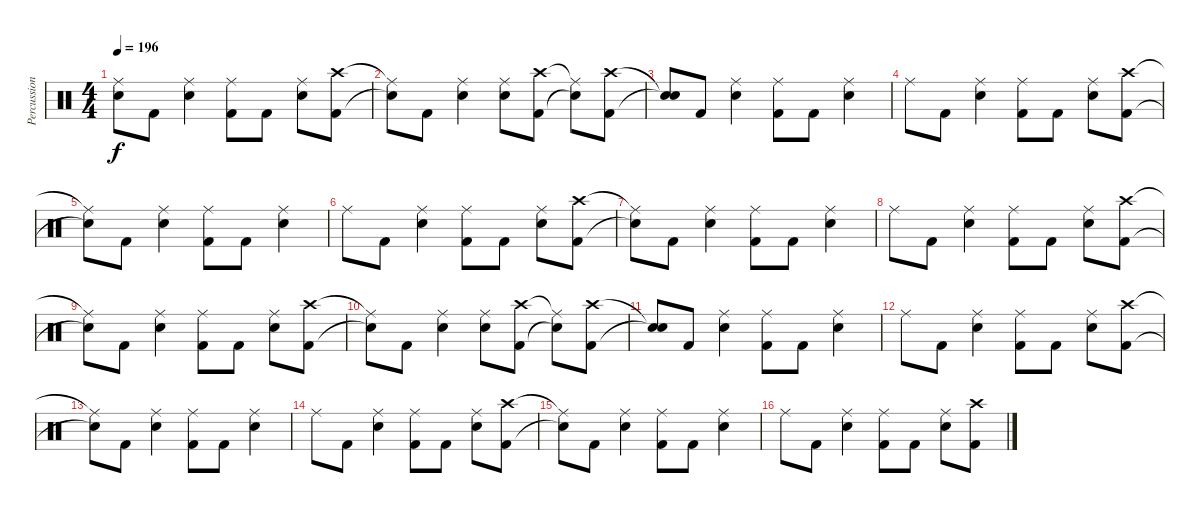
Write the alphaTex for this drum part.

\track ("Percussion" "Percussion") {instrument percussion}
\staff {score}
\articulation defaults
\ts (4 4)
\tempo 196
\clef neutral
\ks c
("Ride (middle)"{t} "Snare (hit)"{t}).8{dy f} "Kick (hit) 2".8 ("Ride (middle)" "Snare (hit) 2").4 ("Ride (middle)" "Kick (hit) 2").8 "Kick (hit) 2".8 ("Ride (middle)" "Snare (hit) 2").8 ("Crash high (hit)" "Kick (hit) 2").8 |
("Ride (middle)"{t} "Snare (hit)"{t}).8 "Kick (hit) 2".8 ("Ride (middle)" "Snare (hit) 2").4 ("Ride (middle)" "Snare (hit) 2").8 ("Crash high (hit)" "Kick (hit) 2").8 ("Ride (middle)"{t} "Snare (hit)"{t}).8 ("Crash high (hit)" "Kick (hit) 2").8 |
("Snare (hit)"{t} "Snare (hit)"{t}).8 "Kick (hit) 2".8 ("Ride (middle)" "Snare (hit) 2").4 ("Ride (middle)" "Kick (hit) 2").8 "Kick (hit) 2".8 ("Ride (middle)" "Snare (hit) 2").4 |
"Ride (middle)".8 "Kick (hit) 2".8 ("Ride (middle)" "Snare (hit) 2").4 ("Ride (middle)" "Kick (hit) 2").8 "Kick (hit) 2".8 ("Ride (middle)" "Snare (hit) 2").8 ("Crash high (hit)" "Kick (hit) 2").8 |
("Ride (middle)"{t} "Snare (hit)"{t}).8 "Kick (hit) 2".8 ("Ride (middle)" "Snare (hit) 2").4 ("Ride (middle)" "Kick (hit) 2").8 "Kick (hit) 2".8 ("Ride (middle)" "Snare (hit) 2").4 |
"Ride (middle)".8 "Kick (hit) 2".8 ("Ride (middle)" "Snare (hit) 2").4 ("Ride (middle)" "Kick (hit) 2").8 "Kick (hit) 2".8 ("Ride (middle)" "Snare (hit) 2").8 ("Crash high (hit)" "Kick (hit) 2").8 |
("Ride (middle)"{t} "Snare (hit)"{t}).8 "Kick (hit) 2".8 ("Ride (middle)" "Snare (hit) 2").4 ("Ride (middle)" "Kick (hit) 2").8 "Kick (hit) 2".8 ("Ride (middle)" "Snare (hit) 2").4 |
"Ride (middle)".8 "Kick (hit) 2".8 ("Ride (middle)" "Snare (hit) 2").4 ("Ride (middle)" "Kick (hit) 2").8 "Kick (hit) 2".8 ("Ride (middle)" "Snare (hit) 2").8 ("Crash high (hit)" "Kick (hit) 2").8 |
("Ride (middle)"{t} "Snare (hit)"{t}).8 "Kick (hit) 2".8 ("Ride (middle)" "Snare (hit) 2").4 ("Ride (middle)" "Kick (hit) 2").8 "Kick (hit) 2".8 ("Ride (middle)" "Snare (hit) 2").8 ("Crash high (hit)" "Kick (hit) 2").8 |
("Ride (middle)"{t} "Snare (hit)"{t}).8 "Kick (hit) 2".8 ("Ride (middle)" "Snare (hit) 2").4 ("Ride (middle)" "Snare (hit) 2").8 ("Crash high (hit)" "Kick (hit) 2").8 ("Ride (middle)"{t} "Snare (hit)"{t}).8 ("Crash high (hit)" "Kick (hit) 2").8 |
("Snare (hit)"{t} "Snare (hit)"{t}).8 "Kick (hit) 2".8 ("Ride (middle)" "Snare (hit) 2").4 ("Ride (middle)" "Kick (hit) 2").8 "Kick (hit) 2".8 ("Ride (middle)" "Snare (hit) 2").4 |
"Ride (middle)".8 "Kick (hit) 2".8 ("Ride (middle)" "Snare (hit) 2").4 ("Ride (middle)" "Kick (hit) 2").8 "Kick (hit) 2".8 ("Ride (middle)" "Snare (hit) 2").8 ("Crash high (hit)" "Kick (hit) 2").8 |
("Ride (middle)"{t} "Snare (hit)"{t}).8 "Kick (hit) 2".8 ("Ride (middle)" "Snare (hit) 2").4 ("Ride (middle)" "Kick (hit) 2").8 "Kick (hit) 2".8 ("Ride (middle)" "Snare (hit) 2").4 |
"Ride (middle)".8 "Kick (hit) 2".8 ("Ride (middle)" "Snare (hit) 2").4 ("Ride (middle)" "Kick (hit) 2").8 "Kick (hit) 2".8 ("Ride (middle)" "Snare (hit) 2").8 ("Crash high (hit)" "Kick (hit) 2").8 |
("Ride (middle)"{t} "Snare (hit)"{t}).8 "Kick (hit) 2".8 ("Ride (middle)" "Snare (hit) 2").4 ("Ride (middle)" "Kick (hit) 2").8 "Kick (hit) 2".8 ("Ride (middle)" "Snare (hit) 2").4 |
"Ride (middle)".8 "Kick (hit) 2".8 ("Ride (middle)" "Snare (hit) 2").4 ("Ride (middle)" "Kick (hit) 2").8 "Kick (hit) 2".8 ("Ride (middle)" "Snare (hit) 2").8 ("Crash high (hit)" "Kick (hit) 2").8
